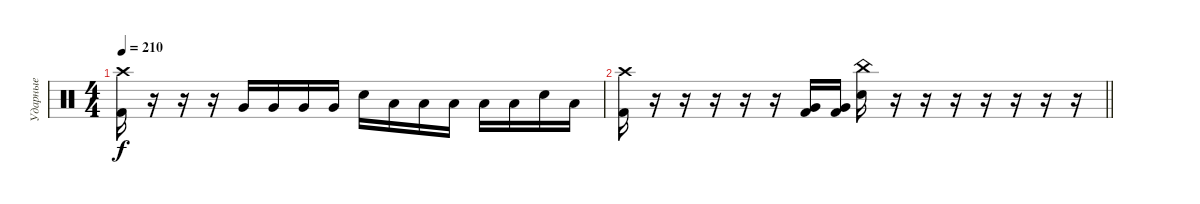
\track ("Ударные" "Ударные") {instrument percussion}
\staff {score}
\articulation defaults
\ts (4 4)
\tempo 210
\clef neutral
\ks c
("Kick (hit) 2" "Crash high (hit)").16{dy f} r.16 r.16 r.16 "Very Low Tom (hit)".16 "Very Low Tom (hit)".16 "Very Low Tom (hit)".16 "Very Low Tom (hit)".16 "Electric Snare (hit)".16 "Low Floor Tom (hit)".16 "Low Floor Tom (hit)".16 "Low Floor Tom (hit)".16 "Low Floor Tom (hit)".16 "Low Floor Tom (hit)".16 "Electric Snare (hit)".16 "Low Floor Tom (hit)".16 |
\barLineRight lightlight
("Kick (hit) 2" "Crash high (hit)").16 r.16 r.16 r.16 r.16 r.16 ("Very Low Tom (hit)" "Kick (hit) 2").16 ("Very Low Tom (hit)" "Kick (hit) 2").16 ("Electric Snare (hit)" "China (hit)").16 r.16 r.16 r.16 r.16 r.16 r.16 r.16
